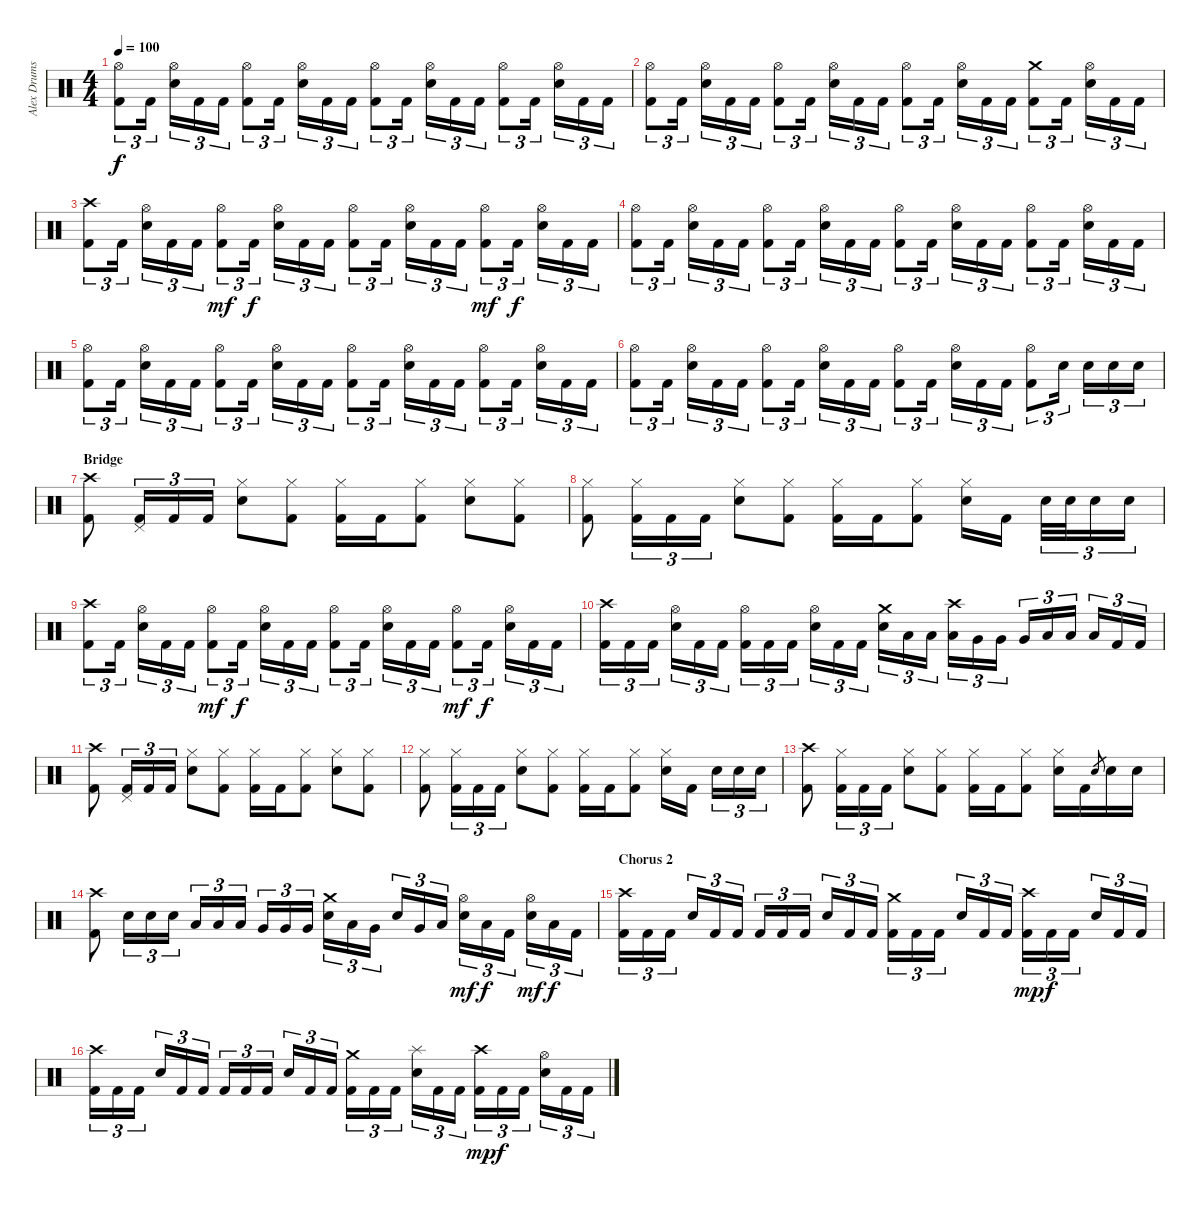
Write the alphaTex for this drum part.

\track ("Alex Drums" "Alex Drums") {instrument percussion}
\staff {score}
\articulation defaults
\ts (4 4)
\tempo 100
\clef neutral
\ks c
("Hi-Hat (open)" "Kick (hit) 2").8{tu (3 2) dy f} "Kick (hit) 2".16{tu (3 2)} ("Hi-Hat (open)" "Electric Snare (hit)").16{tu (3 2)} "Kick (hit) 2".16{tu (3 2)} "Kick (hit) 2".16{tu (3 2)} ("Hi-Hat (open)" "Kick (hit) 2").8{tu (3 2)} "Kick (hit) 2".16{tu (3 2)} ("Hi-Hat (open)" "Electric Snare (hit)").16{tu (3 2)} "Kick (hit) 2".16{tu (3 2)} "Kick (hit) 2".16{tu (3 2)} ("Hi-Hat (open)" "Kick (hit) 2").8{tu (3 2)} "Kick (hit) 2".16{tu (3 2)} ("Hi-Hat (open)" "Electric Snare (hit)").16{tu (3 2)} "Kick (hit) 2".16{tu (3 2)} "Kick (hit) 2".16{tu (3 2)} ("Hi-Hat (open)" "Kick (hit) 2").8{tu (3 2)} "Kick (hit) 2".16{tu (3 2)} ("Hi-Hat (open)" "Electric Snare (hit)").16{tu (3 2)} "Kick (hit) 2".16{tu (3 2)} "Kick (hit) 2".16{tu (3 2)} |
("Hi-Hat (open)" "Kick (hit) 2").8{tu (3 2)} "Kick (hit) 2".16{tu (3 2)} ("Hi-Hat (open)" "Electric Snare (hit)").16{tu (3 2)} "Kick (hit) 2".16{tu (3 2)} "Kick (hit) 2".16{tu (3 2)} ("Hi-Hat (open)" "Kick (hit) 2").8{tu (3 2)} "Kick (hit) 2".16{tu (3 2)} ("Hi-Hat (open)" "Electric Snare (hit)").16{tu (3 2)} "Kick (hit) 2".16{tu (3 2)} "Kick (hit) 2".16{tu (3 2)} ("Hi-Hat (open)" "Kick (hit) 2").8{tu (3 2)} "Kick (hit) 2".16{tu (3 2)} ("Hi-Hat (open)" "Electric Snare (hit)").16{tu (3 2)} "Kick (hit) 2".16{tu (3 2)} "Kick (hit) 2".16{tu (3 2)} ("Crash medium (hit)" "Kick (hit) 2").8{tu (3 2)} "Kick (hit) 2".16{tu (3 2)} ("Hi-Hat (open)" "Electric Snare (hit)").16{tu (3 2)} "Kick (hit) 2".16{tu (3 2)} "Kick (hit) 2".16{tu (3 2)} |
("Crash high (hit)" "Kick (hit) 2").8{tu (3 2)} "Kick (hit) 2".16{tu (3 2)} ("Hi-Hat (open)" "Electric Snare (hit)").16{tu (3 2)} "Kick (hit) 2".16{tu (3 2)} "Kick (hit) 2".16{tu (3 2)} ("Hi-Hat (open)" "Kick (hit) 2").8{tu (3 2) dy mf} "Kick (hit) 2".16{tu (3 2) dy f} ("Hi-Hat (open)" "Electric Snare (hit)").16{tu (3 2)} "Kick (hit) 2".16{tu (3 2)} "Kick (hit) 2".16{tu (3 2)} ("Hi-Hat (open)" "Kick (hit) 2").8{tu (3 2)} "Kick (hit) 2".16{tu (3 2)} ("Hi-Hat (open)" "Electric Snare (hit)").16{tu (3 2)} "Kick (hit) 2".16{tu (3 2)} "Kick (hit) 2".16{tu (3 2)} ("Hi-Hat (open)" "Kick (hit) 2").8{tu (3 2) dy mf} "Kick (hit) 2".16{tu (3 2) dy f} ("Hi-Hat (open)" "Electric Snare (hit)").16{tu (3 2)} "Kick (hit) 2".16{tu (3 2)} "Kick (hit) 2".16{tu (3 2)} |
("Hi-Hat (open)" "Kick (hit) 2").8{tu (3 2)} "Kick (hit) 2".16{tu (3 2)} ("Hi-Hat (open)" "Electric Snare (hit)").16{tu (3 2)} "Kick (hit) 2".16{tu (3 2)} "Kick (hit) 2".16{tu (3 2)} ("Hi-Hat (open)" "Kick (hit) 2").8{tu (3 2)} "Kick (hit) 2".16{tu (3 2)} ("Hi-Hat (open)" "Electric Snare (hit)").16{tu (3 2)} "Kick (hit) 2".16{tu (3 2)} "Kick (hit) 2".16{tu (3 2)} ("Hi-Hat (open)" "Kick (hit) 2").8{tu (3 2)} "Kick (hit) 2".16{tu (3 2)} ("Hi-Hat (open)" "Electric Snare (hit)").16{tu (3 2)} "Kick (hit) 2".16{tu (3 2)} "Kick (hit) 2".16{tu (3 2)} ("Hi-Hat (open)" "Kick (hit) 2").8{tu (3 2)} "Kick (hit) 2".16{tu (3 2)} ("Hi-Hat (open)" "Electric Snare (hit)").16{tu (3 2)} "Kick (hit) 2".16{tu (3 2)} "Kick (hit) 2".16{tu (3 2)} |
("Hi-Hat (open)" "Kick (hit) 2").8{tu (3 2)} "Kick (hit) 2".16{tu (3 2)} ("Hi-Hat (open)" "Electric Snare (hit)").16{tu (3 2)} "Kick (hit) 2".16{tu (3 2)} "Kick (hit) 2".16{tu (3 2)} ("Hi-Hat (open)" "Kick (hit) 2").8{tu (3 2)} "Kick (hit) 2".16{tu (3 2)} ("Hi-Hat (open)" "Electric Snare (hit)").16{tu (3 2)} "Kick (hit) 2".16{tu (3 2)} "Kick (hit) 2".16{tu (3 2)} ("Hi-Hat (open)" "Kick (hit) 2").8{tu (3 2)} "Kick (hit) 2".16{tu (3 2)} ("Hi-Hat (open)" "Electric Snare (hit)").16{tu (3 2)} "Kick (hit) 2".16{tu (3 2)} "Kick (hit) 2".16{tu (3 2)} ("Hi-Hat (open)" "Kick (hit) 2").8{tu (3 2)} "Kick (hit) 2".16{tu (3 2)} ("Hi-Hat (open)" "Electric Snare (hit)").16{tu (3 2)} "Kick (hit) 2".16{tu (3 2)} "Kick (hit) 2".16{tu (3 2)} |
("Hi-Hat (open)" "Kick (hit) 2").8{tu (3 2)} "Kick (hit) 2".16{tu (3 2)} ("Hi-Hat (open)" "Electric Snare (hit)").16{tu (3 2)} "Kick (hit) 2".16{tu (3 2)} "Kick (hit) 2".16{tu (3 2)} ("Hi-Hat (open)" "Kick (hit) 2").8{tu (3 2)} "Kick (hit) 2".16{tu (3 2)} ("Hi-Hat (open)" "Electric Snare (hit)").16{tu (3 2)} "Kick (hit) 2".16{tu (3 2)} "Kick (hit) 2".16{tu (3 2)} ("Hi-Hat (open)" "Kick (hit) 2").8{tu (3 2)} "Kick (hit) 2".16{tu (3 2)} ("Hi-Hat (open)" "Electric Snare (hit)").16{tu (3 2)} "Kick (hit) 2".16{tu (3 2)} "Kick (hit) 2".16{tu (3 2)} ("Hi-Hat (open)" "Kick (hit) 2").8{tu (3 2)} "Electric Snare (hit)".16{tu (3 2)} "Electric Snare (hit)".16{tu (3 2)} "Electric Snare (hit)".16{tu (3 2)} "Electric Snare (hit)".16{tu (3 2)} |
\section ("" "Bridge")
("Crash high (hit)" "Kick (hit) 2").8 ("Pedal Hi-Hat (hit)" "Kick (hit) 2").16{tu (3 2)} "Kick (hit) 2".16{tu (3 2)} "Kick (hit) 2".16{tu (3 2)} ("Hi-Hat (closed)" "Electric Snare (hit)").8 ("Hi-Hat (closed)" "Kick (hit) 2").8 ("Hi-Hat (closed)" "Kick (hit) 2").16 "Kick (hit) 2".16 ("Hi-Hat (closed)" "Kick (hit) 2").8 ("Hi-Hat (closed)" "Electric Snare (hit)").8 ("Hi-Hat (closed)" "Kick (hit) 2").8 |
("Hi-Hat (closed)" "Kick (hit) 2").8 ("Hi-Hat (closed)" "Kick (hit) 2").16{tu (3 2)} "Kick (hit) 2".16{tu (3 2)} "Kick (hit) 2".16{tu (3 2)} ("Hi-Hat (closed)" "Electric Snare (hit)").8 ("Hi-Hat (closed)" "Kick (hit) 2").8 ("Hi-Hat (closed)" "Kick (hit) 2").16 "Kick (hit) 2".16 ("Hi-Hat (closed)" "Kick (hit) 2").8 ("Hi-Hat (closed)" "Electric Snare (hit)").16 "Kick (hit) 2".16 "Electric Snare (hit)".32{tu (3 2)} "Electric Snare (hit)".32{tu (3 2)} "Electric Snare (hit)".16{tu (3 2)} "Electric Snare (hit)".16{tu (3 2)} |
("Crash high (hit)" "Kick (hit) 2").8{tu (3 2)} "Kick (hit) 2".16{tu (3 2)} ("Hi-Hat (open)" "Electric Snare (hit)").16{tu (3 2)} "Kick (hit) 2".16{tu (3 2)} "Kick (hit) 2".16{tu (3 2)} ("Hi-Hat (open)" "Kick (hit) 2").8{tu (3 2) dy mf} "Kick (hit) 2".16{tu (3 2) dy f} ("Hi-Hat (open)" "Electric Snare (hit)").16{tu (3 2)} "Kick (hit) 2".16{tu (3 2)} "Kick (hit) 2".16{tu (3 2)} ("Hi-Hat (open)" "Kick (hit) 2").8{tu (3 2)} "Kick (hit) 2".16{tu (3 2)} ("Hi-Hat (open)" "Electric Snare (hit)").16{tu (3 2)} "Kick (hit) 2".16{tu (3 2)} "Kick (hit) 2".16{tu (3 2)} ("Hi-Hat (open)" "Kick (hit) 2").8{tu (3 2) dy mf} "Kick (hit) 2".16{tu (3 2) dy f} ("Hi-Hat (open)" "Electric Snare (hit)").16{tu (3 2)} "Kick (hit) 2".16{tu (3 2)} "Kick (hit) 2".16{tu (3 2)} |
("Crash high (hit)" "Kick (hit) 2").16{tu (3 2)} "Kick (hit) 2".16{tu (3 2)} "Kick (hit) 2".16{tu (3 2)} ("Hi-Hat (open)" "Electric Snare (hit)").16{tu (3 2)} "Kick (hit) 2".16{tu (3 2)} "Kick (hit) 2".16{tu (3 2)} ("Hi-Hat (open)" "Kick (hit) 2").16{tu (3 2)} "Kick (hit) 2".16{tu (3 2)} "Kick (hit) 2".16{tu (3 2)} ("Hi-Hat (open)" "Electric Snare (hit)").16{tu (3 2)} "Kick (hit) 2".16{tu (3 2)} "Kick (hit) 2".16{tu (3 2)} ("Crash medium (hit)" "Electric Snare (hit)").16{tu (3 2)} "Low Tom (hit)".16{tu (3 2)} "Low Tom (hit)".16{tu (3 2)} ("Crash high (hit)" "Low Tom (hit)").16{tu (3 2)} "Very Low Tom (hit)".16{tu (3 2)} "Very Low Tom (hit)".16{tu (3 2)} "Very Low Tom (hit)".16{tu (3 2)} "Low Floor Tom (hit)".16{tu (3 2)} "Low Floor Tom (hit)".16{tu (3 2)} "Low Floor Tom (hit)".16{tu (3 2)} "Kick (hit) 2".16{tu (3 2)} "Kick (hit) 2".16{tu (3 2)} |
("Crash high (hit)" "Kick (hit) 2").8 ("Pedal Hi-Hat (hit)" "Kick (hit) 2").16{tu (3 2)} "Kick (hit) 2".16{tu (3 2)} "Kick (hit) 2".16{tu (3 2)} ("Hi-Hat (closed)" "Electric Snare (hit)").8 ("Hi-Hat (closed)" "Kick (hit) 2").8 ("Hi-Hat (closed)" "Kick (hit) 2").16 "Kick (hit) 2".16 ("Hi-Hat (closed)" "Kick (hit) 2").8 ("Hi-Hat (closed)" "Electric Snare (hit)").8 ("Hi-Hat (closed)" "Kick (hit) 2").8 |
("Hi-Hat (closed)" "Kick (hit) 2").8 ("Hi-Hat (closed)" "Kick (hit) 2").16{tu (3 2)} "Kick (hit) 2".16{tu (3 2)} "Kick (hit) 2".16{tu (3 2)} ("Hi-Hat (closed)" "Electric Snare (hit)").8 ("Hi-Hat (closed)" "Kick (hit) 2").8 ("Hi-Hat (closed)" "Kick (hit) 2").16 "Kick (hit) 2".16 ("Hi-Hat (closed)" "Kick (hit) 2").8 ("Hi-Hat (closed)" "Electric Snare (hit)").16 "Kick (hit) 2".16 "Electric Snare (hit)".16{tu (3 2)} "Electric Snare (hit)".16{tu (3 2)} "Electric Snare (hit)".16{tu (3 2)} |
("Crash high (hit)" "Kick (hit) 2").8 ("Hi-Hat (closed)" "Kick (hit) 2").16{tu (3 2)} "Kick (hit) 2".16{tu (3 2)} "Kick (hit) 2".16{tu (3 2)} ("Hi-Hat (closed)" "Electric Snare (hit)").8 ("Hi-Hat (closed)" "Kick (hit) 2").8 ("Hi-Hat (closed)" "Kick (hit) 2").16 "Kick (hit) 2".16 ("Hi-Hat (closed)" "Kick (hit) 2").8 ("Hi-Hat (closed)" "Electric Snare (hit)").16 "Kick (hit) 2".16 "Electric Snare (hit)".8{gr} "Electric Snare (hit)".16 "Electric Snare (hit)".16 |
("Crash high (hit)" "Kick (hit) 2").8 "Electric Snare (hit)".16{tu (3 2)} "Electric Snare (hit)".16{tu (3 2)} "Electric Snare (hit)".16{tu (3 2)} "Low Tom (hit)".16{tu (3 2)} "Low Tom (hit)".16{tu (3 2)} "Low Tom (hit)".16{tu (3 2)} "Very Low Tom (hit)".16{tu (3 2)} "Very Low Tom (hit)".16{tu (3 2)} "Very Low Tom (hit)".16{tu (3 2)} ("Crash medium (hit)" "Electric Snare (hit)").16{tu (3 2)} "Low Tom (hit)".16{tu (3 2)} "Very Low Tom (hit)".16{tu (3 2)} "Electric Snare (hit)".16{tu (3 2)} "Very Low Tom (hit)".16{tu (3 2)} "Low Floor Tom (hit)".16{tu (3 2)} ("Hi-Hat (open)" "Electric Snare (hit)").16{tu (3 2) dy mf} "Low Floor Tom (hit)".16{tu (3 2) dy f} "Kick (hit) 2".16{tu (3 2)} ("Hi-Hat (open)" "Electric Snare (hit)").16{tu (3 2) dy mf} "Low Floor Tom (hit)".16{tu (3 2) dy f} "Kick (hit) 2".16{tu (3 2)} |
\section ("" "Chorus 2")
("Crash high (hit)" "Kick (hit) 2").16{tu (3 2)} "Kick (hit) 2".16{tu (3 2)} "Kick (hit) 2".16{tu (3 2)} "Electric Snare (hit)".16{tu (3 2)} "Kick (hit) 2".16{tu (3 2)} "Kick (hit) 2".16{tu (3 2)} "Kick (hit) 2".16{tu (3 2)} "Kick (hit) 2".16{tu (3 2)} "Kick (hit) 2".16{tu (3 2)} "Electric Snare (hit)".16{tu (3 2)} "Kick (hit) 2".16{tu (3 2)} "Kick (hit) 2".16{tu (3 2)} ("Crash medium (hit)" "Kick (hit) 2").16{tu (3 2)} "Kick (hit) 2".16{tu (3 2)} "Kick (hit) 2".16{tu (3 2)} "Electric Snare (hit)".16{tu (3 2)} "Kick (hit) 2".16{tu (3 2)} "Kick (hit) 2".16{tu (3 2)} ("Crash high (hit)" "Kick (hit) 2").16{tu (3 2) dy mp} "Kick (hit) 2".16{tu (3 2) dy f} "Kick (hit) 2".16{tu (3 2)} "Electric Snare (hit)".16{tu (3 2)} "Kick (hit) 2".16{tu (3 2)} "Kick (hit) 2".16{tu (3 2)} |
("Crash high (hit)" "Kick (hit) 2").16{tu (3 2)} "Kick (hit) 2".16{tu (3 2)} "Kick (hit) 2".16{tu (3 2)} "Electric Snare (hit)".16{tu (3 2)} "Kick (hit) 2".16{tu (3 2)} "Kick (hit) 2".16{tu (3 2)} "Kick (hit) 2".16{tu (3 2)} "Kick (hit) 2".16{tu (3 2)} "Kick (hit) 2".16{tu (3 2)} "Electric Snare (hit)".16{tu (3 2)} "Kick (hit) 2".16{tu (3 2)} "Kick (hit) 2".16{tu (3 2)} ("Crash medium (hit)" "Kick (hit) 2").16{tu (3 2)} "Kick (hit) 2".16{tu (3 2)} "Kick (hit) 2".16{tu (3 2)} ("Splash (hit)" "Electric Snare (hit)").16{tu (3 2)} "Kick (hit) 2".16{tu (3 2)} "Kick (hit) 2".16{tu (3 2)} ("Crash high (hit)" "Kick (hit) 2").16{tu (3 2) dy mp} "Kick (hit) 2".16{tu (3 2) dy f} "Kick (hit) 2".16{tu (3 2)} ("Hi-Hat (open)" "Electric Snare (hit)").16{tu (3 2)} "Kick (hit) 2".16{tu (3 2)} "Kick (hit) 2".16{tu (3 2)}
